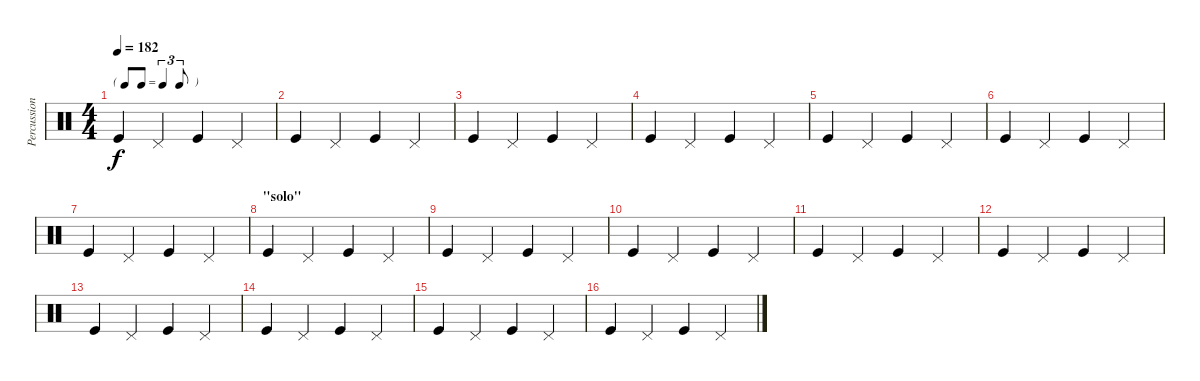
\track ("Percussions" "Percussion") {instrument percussion}
\staff {score}
\articulation defaults
\ts (4 4)
\tf triplet8th
\tempo 182
\clef neutral
\ks c "Kick (hit)".4{dy f} "Pedal Hi-Hat (hit)".4 "Kick (hit)".4 "Pedal Hi-Hat (hit)".4
|
"Kick (hit)".4 "Pedal Hi-Hat (hit)".4 "Kick (hit)".4 "Pedal Hi-Hat (hit)".4 |
"Kick (hit)".4 "Pedal Hi-Hat (hit)".4 "Kick (hit)".4 "Pedal Hi-Hat (hit)".4 |
"Kick (hit)".4 "Pedal Hi-Hat (hit)".4 "Kick (hit)".4 "Pedal Hi-Hat (hit)".4 |
"Kick (hit)".4 "Pedal Hi-Hat (hit)".4 "Kick (hit)".4 "Pedal Hi-Hat (hit)".4 |
"Kick (hit)".4 "Pedal Hi-Hat (hit)".4 "Kick (hit)".4 "Pedal Hi-Hat (hit)".4 |
"Kick (hit)".4 "Pedal Hi-Hat (hit)".4 "Kick (hit)".4 "Pedal Hi-Hat (hit)".4 |
\section ("" "\"solo\"")
"Kick (hit)".4 "Pedal Hi-Hat (hit)".4 "Kick (hit)".4 "Pedal Hi-Hat (hit)".4 |
"Kick (hit)".4 "Pedal Hi-Hat (hit)".4 "Kick (hit)".4 "Pedal Hi-Hat (hit)".4 |
"Kick (hit)".4 "Pedal Hi-Hat (hit)".4 "Kick (hit)".4 "Pedal Hi-Hat (hit)".4 |
"Kick (hit)".4 "Pedal Hi-Hat (hit)".4 "Kick (hit)".4 "Pedal Hi-Hat (hit)".4 |
"Kick (hit)".4 "Pedal Hi-Hat (hit)".4 "Kick (hit)".4 "Pedal Hi-Hat (hit)".4 |
"Kick (hit)".4 "Pedal Hi-Hat (hit)".4 "Kick (hit)".4 "Pedal Hi-Hat (hit)".4 |
"Kick (hit)".4 "Pedal Hi-Hat (hit)".4 "Kick (hit)".4 "Pedal Hi-Hat (hit)".4 |
"Kick (hit)".4 "Pedal Hi-Hat (hit)".4 "Kick (hit)".4 "Pedal Hi-Hat (hit)".4 |
"Kick (hit)".4 "Pedal Hi-Hat (hit)".4 "Kick (hit)".4 "Pedal Hi-Hat (hit)".4
